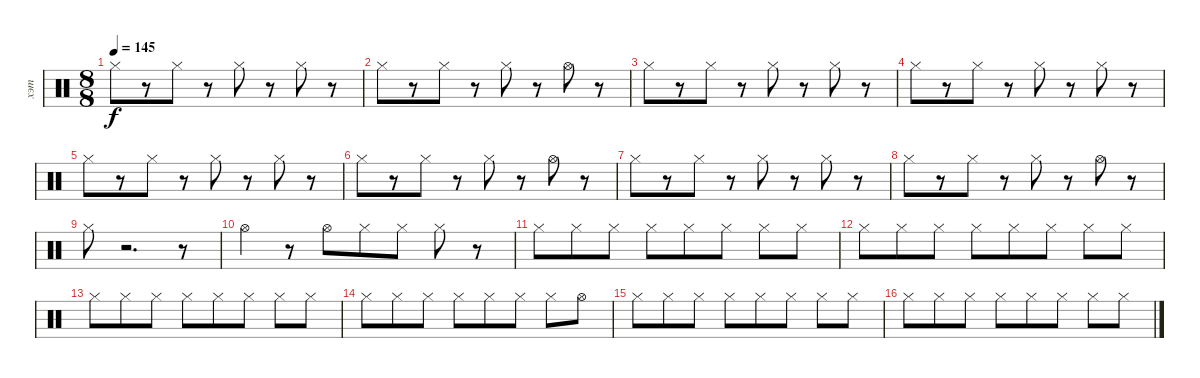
\track ("хэт" "хэт") {instrument percussion}
\staff {score}
\articulation defaults
\ts (8 8)
\tempo 145
\clef neutral
\ks c "Hi-Hat (closed)".8{dy f}
r.8 "Hi-Hat (closed)".8 r.8 "Hi-Hat (closed)".8 r.8 "Hi-Hat (closed)".8 r.8 |
"Hi-Hat (closed)".8 r.8 "Hi-Hat (closed)".8 r.8 "Hi-Hat (closed)".8 r.8 "Hi-Hat (open)".8 r.8 |
"Hi-Hat (closed)".8 r.8 "Hi-Hat (closed)".8 r.8 "Hi-Hat (closed)".8 r.8 "Hi-Hat (closed)".8 r.8 |
"Hi-Hat (closed)".8 r.8 "Hi-Hat (closed)".8 r.8 "Hi-Hat (closed)".8 r.8 "Hi-Hat (closed)".8 r.8 |
"Hi-Hat (closed)".8 r.8 "Hi-Hat (closed)".8 r.8 "Hi-Hat (closed)".8 r.8 "Hi-Hat (closed)".8 r.8 |
"Hi-Hat (closed)".8 r.8 "Hi-Hat (closed)".8 r.8 "Hi-Hat (closed)".8 r.8 "Hi-Hat (open)".8 r.8 |
"Hi-Hat (closed)".8 r.8 "Hi-Hat (closed)".8 r.8 "Hi-Hat (closed)".8 r.8 "Hi-Hat (closed)".8 r.8 |
"Hi-Hat (closed)".8 r.8 "Hi-Hat (closed)".8 r.8 "Hi-Hat (closed)".8 r.8 "Hi-Hat (open)".8 r.8 |
"Hi-Hat (closed)".8 r.2{d} r.8 |
"Hi-Hat (open)".4 r.8 "Hi-Hat (open)".8 "Hi-Hat (closed)".8 "Hi-Hat (closed)".8 "Hi-Hat (closed)".8 r.8 |
"Hi-Hat (closed)".8 "Hi-Hat (closed)".8 "Hi-Hat (closed)".8 "Hi-Hat (closed)".8 "Hi-Hat (closed)".8 "Hi-Hat (closed)".8 "Hi-Hat (closed)".8 "Hi-Hat (closed)".8 |
"Hi-Hat (closed)".8 "Hi-Hat (closed)".8 "Hi-Hat (closed)".8 "Hi-Hat (closed)".8 "Hi-Hat (closed)".8 "Hi-Hat (closed)".8 "Hi-Hat (closed)".8 "Hi-Hat (closed)".8 |
"Hi-Hat (closed)".8 "Hi-Hat (closed)".8 "Hi-Hat (closed)".8 "Hi-Hat (closed)".8 "Hi-Hat (closed)".8 "Hi-Hat (closed)".8 "Hi-Hat (closed)".8 "Hi-Hat (closed)".8 |
"Hi-Hat (closed)".8 "Hi-Hat (closed)".8 "Hi-Hat (closed)".8 "Hi-Hat (closed)".8 "Hi-Hat (closed)".8 "Hi-Hat (closed)".8 "Hi-Hat (closed)".8 "Hi-Hat (open)".8 |
"Hi-Hat (closed)".8 "Hi-Hat (closed)".8 "Hi-Hat (closed)".8 "Hi-Hat (closed)".8 "Hi-Hat (closed)".8 "Hi-Hat (closed)".8 "Hi-Hat (closed)".8 "Hi-Hat (closed)".8 |
"Hi-Hat (closed)".8 "Hi-Hat (closed)".8 "Hi-Hat (closed)".8 "Hi-Hat (closed)".8 "Hi-Hat (closed)".8 "Hi-Hat (closed)".8 "Hi-Hat (closed)".8 "Hi-Hat (closed)".8
